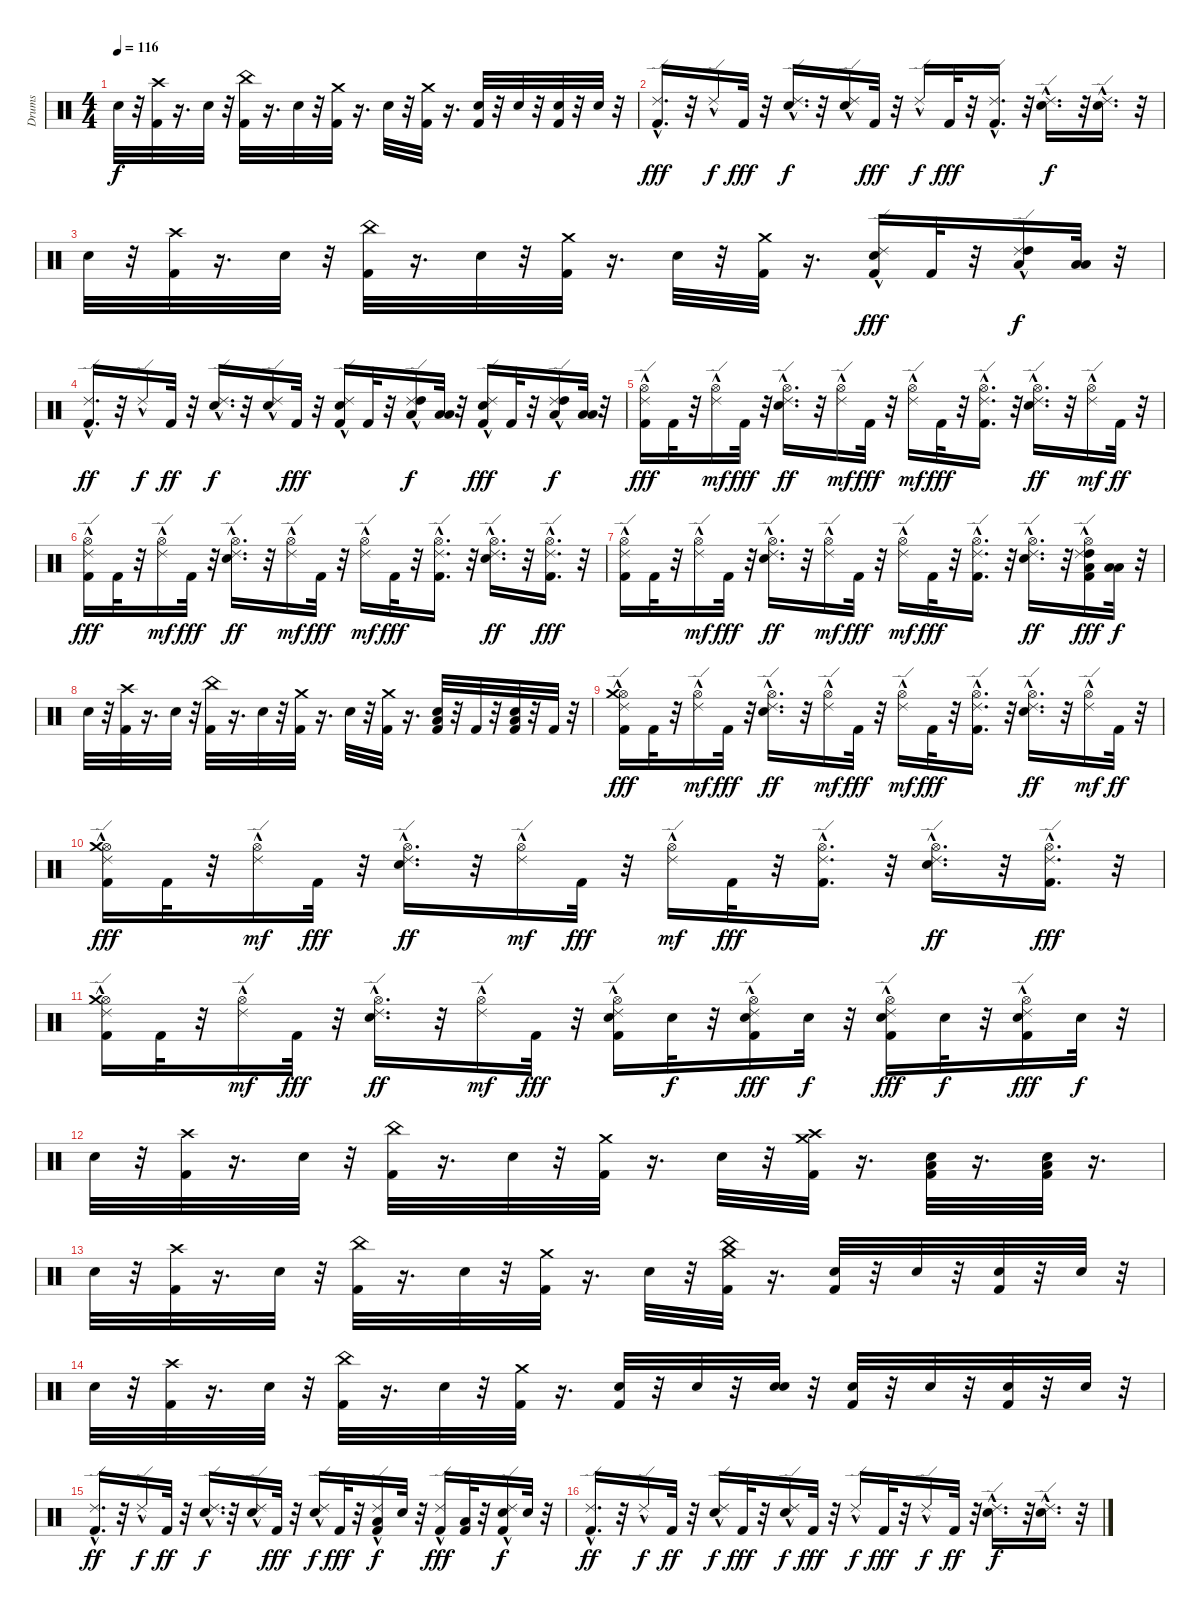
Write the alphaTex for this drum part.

\track ("Drums" "Drums") {instrument percussion}
\staff {score}
\articulation defaults
\ts (4 4)
\tempo 116
\clef neutral
\ks c "Electric Snare (hit)".32{dy f}
r.32 ("Crash high (hit)" "Kick (hit) 2").32 r.16{d} "Electric Snare (hit)".32 r.32 ("China (hit)" "Kick (hit) 2").32 r.16{d} "Electric Snare (hit)".32 r.32 ("Crash medium (hit)" "Kick (hit) 2").32 r.16{d} "Electric Snare (hit)".32 r.32 ("Crash medium (hit)" "Kick (hit) 2").32 r.16{d} ("Kick (hit) 2" "Electric Snare (hit)").32 r.32 "Electric Snare (hit)".32 r.32 ("Kick (hit) 2" "Electric Snare (hit)").32 r.32 "Electric Snare (hit)".32 r.32 |
("Kick (hit) 2" "Ride (edge) 2"{hac}).16{d dy fff} r.32 "Ride (edge) 2"{hac}.16{dy f} "Kick (hit) 2".32{dy fff} r.32 ("Electric Snare (hit)" "Ride (edge) 2"{hac}).16{d dy f} r.32 ("Electric Snare (hit)" "Ride (edge) 2"{hac}).16 "Kick (hit) 2".32{dy fff} r.32 "Ride (edge) 2"{hac}.16{dy f} "Kick (hit) 2".32{dy fff} r.32 ("Kick (hit) 2" "Ride (edge) 2"{hac}).16{d} r.32 ("Electric Snare (hit)" "Ride (edge) 2"{hac}).16{d dy f} r.32 ("Electric Snare (hit)" "Ride (edge) 2"{hac}).16{d} r.32 |
"Electric Snare (hit)".32 r.32 ("Crash high (hit)" "Kick (hit) 2").32 r.16{d} "Electric Snare (hit)".32 r.32 ("China (hit)" "Kick (hit) 2").32 r.16{d} "Electric Snare (hit)".32 r.32 ("Crash medium (hit)" "Kick (hit) 2").32 r.16{d} "Electric Snare (hit)".32 r.32 ("Crash medium (hit)" "Kick (hit) 2").32 r.16{d} ("Ride (edge) 2"{hac} "Kick (hit) 2" "Electric Snare (hit)").16{dy fff} "Kick (hit) 2".32 r.32 ("Ride (edge) 2"{hac} "Low Tom (hit)" "High Tom (hit)").16{dy f} ("Low Floor Tom (hit)" "Low Tom (hit)").32 r.32 |
("Kick (hit) 2"{hac} "Ride (edge) 2"{hac}).16{d dy ff} r.32 "Ride (edge) 2"{hac}.16{dy f} "Kick (hit) 2".32{dy ff} r.32 ("Electric Snare (hit)" "Ride (edge) 2"{hac}).16{d dy f} r.32 ("Electric Snare (hit)" "Ride (edge) 2"{hac}).16 "Kick (hit) 2".32{dy fff} r.32 ("Ride (edge) 2"{hac} "Kick (hit) 2" "Electric Snare (hit)").16 "Kick (hit) 2".32 r.32 ("Ride (edge) 2"{hac} "Low Tom (hit)" "High Tom (hit)").16{dy f} ("Low Floor Tom (hit)" "Low Tom (hit)").32 r.32 ("Ride (edge) 2"{hac} "Kick (hit) 2" "Electric Snare (hit)").16{dy fff} "Kick (hit) 2".32 r.32 ("Ride (edge) 2"{hac} "Low Tom (hit)" "High Tom (hit)").16{dy f} ("Low Floor Tom (hit)" "Low Tom (hit)").32 r.32 |
("Hi-Hat (open)" "Ride (edge) 2"{hac} "Kick (hit) 2").16{dy fff} "Kick (hit) 2".32 r.32 ("Hi-Hat (open)" "Ride (edge) 2"{hac}).16{dy mf} "Kick (hit) 2".32{dy fff} r.32 ("Hi-Hat (open)" "Ride (edge) 2"{hac} "Electric Snare (hit)").16{d dy ff} r.32 ("Hi-Hat (open)" "Ride (edge) 2"{hac}).16{dy mf} "Kick (hit) 2".32{dy fff} r.32 ("Hi-Hat (open)" "Ride (edge) 2"{hac}).16{dy mf} "Kick (hit) 2".32{dy fff} r.32 ("Hi-Hat (open)" "Ride (edge) 2"{hac} "Kick (hit) 2").16{d} r.32 ("Hi-Hat (open)" "Ride (edge) 2"{hac} "Electric Snare (hit)").16{d dy ff} r.32 ("Hi-Hat (open)" "Ride (edge) 2"{hac}).16{dy mf} "Kick (hit) 2".32{dy ff} r.32 |
("Hi-Hat (open)" "Ride (edge) 2"{hac} "Kick (hit) 2").16{dy fff} "Kick (hit) 2".32 r.32 ("Hi-Hat (open)" "Ride (edge) 2"{hac}).16{dy mf} "Kick (hit) 2".32{dy fff} r.32 ("Hi-Hat (open)" "Ride (edge) 2"{hac} "Electric Snare (hit)").16{d dy ff} r.32 ("Hi-Hat (open)" "Ride (edge) 2"{hac}).16{dy mf} "Kick (hit) 2".32{dy fff} r.32 ("Hi-Hat (open)" "Ride (edge) 2"{hac}).16{dy mf} "Kick (hit) 2".32{dy fff} r.32 ("Hi-Hat (open)" "Ride (edge) 2"{hac} "Kick (hit) 2").16{d} r.32 ("Hi-Hat (open)" "Ride (edge) 2"{hac} "Electric Snare (hit)").16{d dy ff} r.32 ("Hi-Hat (open)" "Kick (hit) 2" "Ride (edge) 2"{hac}).16{d dy fff} r.32 |
("Hi-Hat (open)" "Ride (edge) 2"{hac} "Kick (hit) 2").16 "Kick (hit) 2".32 r.32 ("Hi-Hat (open)" "Ride (edge) 2"{hac}).16{dy mf} "Kick (hit) 2".32{dy fff} r.32 ("Hi-Hat (open)" "Ride (edge) 2"{hac} "Electric Snare (hit)").16{d dy ff} r.32 ("Hi-Hat (open)" "Ride (edge) 2"{hac}).16{dy mf} "Kick (hit) 2".32{dy fff} r.32 ("Hi-Hat (open)" "Ride (edge) 2"{hac}).16{dy mf} "Kick (hit) 2".32{dy fff} r.32 ("Hi-Hat (open)" "Ride (edge) 2"{hac} "Kick (hit) 2").16{d} r.32 ("Hi-Hat (open)" "Ride (edge) 2"{hac} "Electric Snare (hit)").16{d dy ff} r.32 ("Hi-Hat (open)" "Low Tom (hit)" "High Tom (hit)" "Kick (hit) 2" "Ride (edge) 2"{hac}).16{dy fff} ("Low Floor Tom (hit)" "Low Tom (hit)").32{dy f} r.32 |
"Electric Snare (hit)".32 r.32 ("Crash high (hit)" "Kick (hit) 2").32 r.16{d} "Electric Snare (hit)".32 r.32 ("China (hit)" "Kick (hit) 2").32 r.16{d} "Electric Snare (hit)".32 r.32 ("Crash medium (hit)" "Kick (hit) 2").32 r.16{d} "Electric Snare (hit)".32 r.32 ("Crash medium (hit)" "Kick (hit) 2").32 r.16{d} ("Low Tom (hit)" "Kick (hit) 2" "Electric Snare (hit)").32 r.32 "Kick (hit) 2".32 r.32 ("Low Tom (hit)" "Kick (hit) 2" "Electric Snare (hit)").32 r.32 "Kick (hit) 2".32 r.32 |
("Hi-Hat (open)" "Ride (edge) 2"{hac} "Kick (hit) 2" "Crash medium (hit)").16{dy fff} "Kick (hit) 2".32 r.32 ("Hi-Hat (open)" "Ride (edge) 2"{hac}).16{dy mf} "Kick (hit) 2".32{dy fff} r.32 ("Hi-Hat (open)" "Ride (edge) 2"{hac} "Electric Snare (hit)").16{d dy ff} r.32 ("Hi-Hat (open)" "Ride (edge) 2"{hac}).16{dy mf} "Kick (hit) 2".32{dy fff} r.32 ("Hi-Hat (open)" "Ride (edge) 2"{hac}).16{dy mf} "Kick (hit) 2".32{dy fff} r.32 ("Hi-Hat (open)" "Ride (edge) 2"{hac} "Kick (hit) 2").16{d} r.32 ("Hi-Hat (open)" "Ride (edge) 2"{hac} "Electric Snare (hit)").16{d dy ff} r.32 ("Hi-Hat (open)" "Ride (edge) 2"{hac}).16{dy mf} "Kick (hit) 2".32{dy ff} r.32 |
("Hi-Hat (open)" "Crash medium (hit)" "Ride (edge) 2"{hac} "Kick (hit) 2").16{dy fff} "Kick (hit) 2".32 r.32 ("Hi-Hat (open)" "Ride (edge) 2"{hac}).16{dy mf} "Kick (hit) 2".32{dy fff} r.32 ("Hi-Hat (open)" "Ride (edge) 2"{hac} "Electric Snare (hit)").16{d dy ff} r.32 ("Hi-Hat (open)" "Ride (edge) 2"{hac}).16{dy mf} "Kick (hit) 2".32{dy fff} r.32 ("Hi-Hat (open)" "Ride (edge) 2"{hac}).16{dy mf} "Kick (hit) 2".32{dy fff} r.32 ("Hi-Hat (open)" "Ride (edge) 2"{hac} "Kick (hit) 2").16{d} r.32 ("Hi-Hat (open)" "Ride (edge) 2"{hac} "Electric Snare (hit)").16{d dy ff} r.32 ("Hi-Hat (open)" "Kick (hit) 2" "Ride (edge) 2"{hac}).16{d dy fff} r.32 |
("Hi-Hat (open)" "Crash medium (hit)" "Ride (edge) 2"{hac} "Kick (hit) 2").16 "Kick (hit) 2".32 r.32 ("Hi-Hat (open)" "Ride (edge) 2"{hac}).16{dy mf} "Kick (hit) 2".32{dy fff} r.32 ("Hi-Hat (open)" "Ride (edge) 2"{hac} "Electric Snare (hit)").16{d dy ff} r.32 ("Hi-Hat (open)" "Ride (edge) 2"{hac}).16{dy mf} "Kick (hit) 2".32{dy fff} r.32 ("Hi-Hat (open)" "Kick (hit) 2" "Electric Snare (hit)" "Ride (edge) 2"{hac}).16 "Electric Snare (hit)".32{dy f} r.32 ("Hi-Hat (open)" "Electric Snare (hit)" "Ride (edge) 2"{hac} "Kick (hit) 2").16{dy fff} "Electric Snare (hit)".32{dy f} r.32 ("Hi-Hat (open)" "Kick (hit) 2" "Electric Snare (hit)" "Ride (edge) 2"{hac}).16{dy fff} "Electric Snare (hit)".32{dy f} r.32 ("Hi-Hat (open)" "Electric Snare (hit)" "Kick (hit) 2" "Ride (edge) 2"{hac}).16{dy fff} "Electric Snare (hit)".32{dy f} r.32 |
"Electric Snare (hit)".32 r.32 ("Crash high (hit)" "Kick (hit) 2").32 r.16{d} "Electric Snare (hit)".32 r.32 ("China (hit)" "Kick (hit) 2").32 r.16{d} "Electric Snare (hit)".32 r.32 ("Crash medium (hit)" "Kick (hit) 2").32 r.16{d} "Electric Snare (hit)".32 r.32 ("Crash high (hit)" "Crash medium (hit)" "Kick (hit) 2").32 r.16{d} ("Low Tom (hit)" "Kick (hit) 2" "Electric Snare (hit)").32 r.16{d} ("Low Tom (hit)" "Kick (hit) 2" "Electric Snare (hit)").32 r.16{d} |
"Electric Snare (hit)".32 r.32 ("Crash high (hit)" "Kick (hit) 2").32 r.16{d} "Electric Snare (hit)".32 r.32 ("China (hit)" "Kick (hit) 2").32 r.16{d} "Electric Snare (hit)".32 r.32 ("Crash medium (hit)" "Kick (hit) 2").32 r.16{d} "Electric Snare (hit)".32 r.32 ("China (hit)" "Crash medium (hit)" "Kick (hit) 2").32 r.16{d} ("Kick (hit) 2" "Electric Snare (hit)").32 r.32 "Electric Snare (hit)".32 r.32 ("Kick (hit) 2" "Electric Snare (hit)").32 r.32 "Electric Snare (hit)".32 r.32 |
"Electric Snare (hit)".32 r.32 ("Crash high (hit)" "Kick (hit) 2").32 r.16{d} "Electric Snare (hit)".32 r.32 ("China (hit)" "Kick (hit) 2").32 r.16{d} "Electric Snare (hit)".32 r.32 ("Crash medium (hit)" "Kick (hit) 2").32 r.16{d} ("Kick (hit) 2" "Electric Snare (hit)").32 r.32 "Electric Snare (hit)".32 r.32 ("Electric Snare (hit)" "Electric Snare (hit)").32 r.32 ("Kick (hit) 2" "Electric Snare (hit)").32 r.32 "Electric Snare (hit)".32 r.32 ("Kick (hit) 2" "Electric Snare (hit)").32 r.32 "Electric Snare (hit)".32 r.32 |
("Kick (hit) 2"{hac} "Ride (edge) 2"{hac}).16{d dy ff} r.32 "Ride (edge) 2"{hac}.16{dy f} "Kick (hit) 2".32{dy ff} r.32 ("Electric Snare (hit)" "Ride (edge) 2"{hac}).16{d dy f} r.32 ("Electric Snare (hit)" "Ride (edge) 2"{hac}).16 "Kick (hit) 2".32{dy fff} r.32 ("Ride (edge) 2"{hac} "Electric Snare (hit)").16{dy f} "Kick (hit) 2".32{dy fff} r.32 ("Low Tom (hit)" "Kick (hit) 2" "Ride (edge) 2"{hac}).16{dy f} "Electric Snare (hit)".32 r.32 ("Ride (edge) 2"{hac} "Kick (hit) 2").16{dy fff} ("Low Floor Tom (hit)" "Kick (hit) 2").32 r.32 ("Kick (hit) 2" "Electric Snare (hit)" "Ride (edge) 2"{hac}).16{dy f} "Electric Snare (hit)".32 r.32 |
("Kick (hit) 2"{hac} "Ride (edge) 2"{hac}).16{d dy ff} r.32 "Ride (edge) 2"{hac}.16{dy f} "Kick (hit) 2".32{dy ff} r.32 ("Electric Snare (hit)" "Ride (edge) 2"{hac}).16{dy f} "Kick (hit) 2".32{dy fff} r.32 ("Electric Snare (hit)" "Ride (edge) 2"{hac}).16{dy f} "Kick (hit) 2".32{dy fff} r.32 "Ride (edge) 2"{hac}.16{dy f} "Kick (hit) 2".32{dy fff} r.32 "Ride (edge) 2"{hac}.16{dy f} "Kick (hit) 2".32{dy ff} r.32 ("Electric Snare (hit)" "Ride (edge) 2"{hac}).16{d dy f} r.32 ("Electric Snare (hit)" "Ride (edge) 2"{hac}).16{d} r.32
